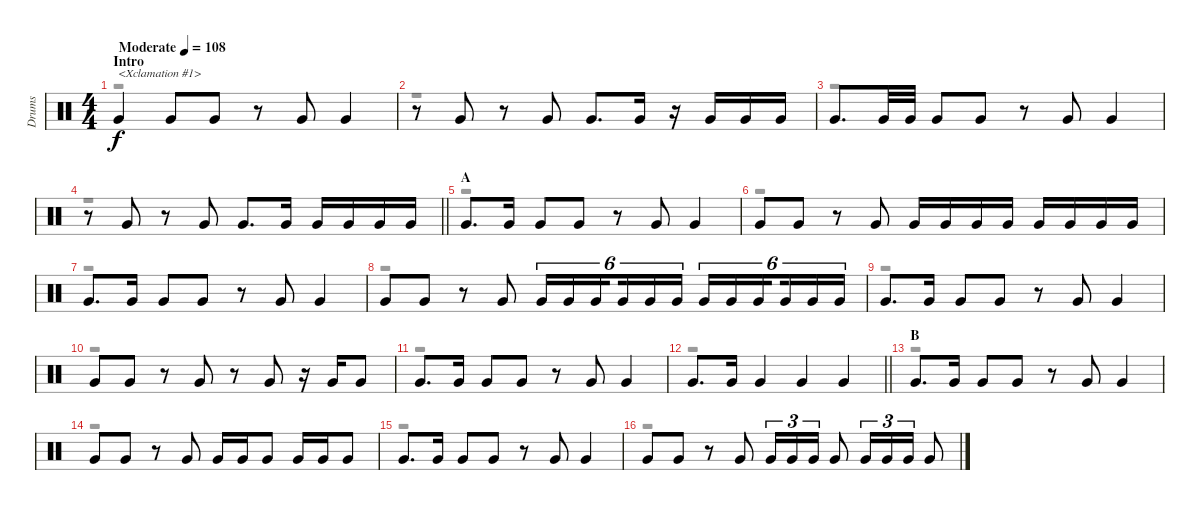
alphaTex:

\track ("Drums" "Drums") {instrument percussion}
\staff {score}
\articulation defaults
\voice
\ts (4 4)
\section ("" "Intro")
\tempo (108 "Moderate")
\clef neutral
\ks c "Very Low Tom (hit)".4{txt "<Xclamation #1>" dy f} "Very Low Tom (hit)".8 "Very Low Tom (hit)".8
r.8 "Very Low Tom (hit)".8 "Very Low Tom (hit)".4 |
r.8 "Very Low Tom (hit)".8 r.8 "Very Low Tom (hit)".8 "Very Low Tom (hit)".8{d} "Very Low Tom (hit)".16 r.16 "Very Low Tom (hit)".16 "Very Low Tom (hit)".16 "Very Low Tom (hit)".16 |
"Very Low Tom (hit)".8{d} "Very Low Tom (hit)".32 "Very Low Tom (hit)".32 "Very Low Tom (hit)".8 "Very Low Tom (hit)".8 r.8 "Very Low Tom (hit)".8 "Very Low Tom (hit)".4 |
\barLineRight lightlight
r.8 "Very Low Tom (hit)".8 r.8 "Very Low Tom (hit)".8 "Very Low Tom (hit)".8{d} "Very Low Tom (hit)".16 "Very Low Tom (hit)".16 "Very Low Tom (hit)".16 "Very Low Tom (hit)".16 "Very Low Tom (hit)".16 |
\section ("" "A")
"Very Low Tom (hit)".8{d} "Very Low Tom (hit)".16 "Very Low Tom (hit)".8 "Very Low Tom (hit)".8 r.8 "Very Low Tom (hit)".8 "Very Low Tom (hit)".4 |
"Very Low Tom (hit)".8 "Very Low Tom (hit)".8 r.8 "Very Low Tom (hit)".8 "Very Low Tom (hit)".16 "Very Low Tom (hit)".16 "Very Low Tom (hit)".16 "Very Low Tom (hit)".16 "Very Low Tom (hit)".16 "Very Low Tom (hit)".16 "Very Low Tom (hit)".16 "Very Low Tom (hit)".16 |
"Very Low Tom (hit)".8{d} "Very Low Tom (hit)".16 "Very Low Tom (hit)".8 "Very Low Tom (hit)".8 r.8 "Very Low Tom (hit)".8 "Very Low Tom (hit)".4 |
"Very Low Tom (hit)".8 "Very Low Tom (hit)".8 r.8 "Very Low Tom (hit)".8 "Very Low Tom (hit)".16{tu (6 4)} "Very Low Tom (hit)".16{tu (6 4)} "Very Low Tom (hit)".16{tu (6 4) beam splitsecondary} "Very Low Tom (hit)".16{tu (6 4)} "Very Low Tom (hit)".16{tu (6 4)} "Very Low Tom (hit)".16{tu (6 4)} "Very Low Tom (hit)".16{tu (6 4)} "Very Low Tom (hit)".16{tu (6 4)} "Very Low Tom (hit)".16{tu (6 4) beam splitsecondary} "Very Low Tom (hit)".16{tu (6 4)} "Very Low Tom (hit)".16{tu (6 4)} "Very Low Tom (hit)".16{tu (6 4)} |
"Very Low Tom (hit)".8{d} "Very Low Tom (hit)".16 "Very Low Tom (hit)".8 "Very Low Tom (hit)".8 r.8 "Very Low Tom (hit)".8 "Very Low Tom (hit)".4 |
"Very Low Tom (hit)".8 "Very Low Tom (hit)".8 r.8 "Very Low Tom (hit)".8 r.8 "Very Low Tom (hit)".8 r.16 "Very Low Tom (hit)".16 "Very Low Tom (hit)".8 |
"Very Low Tom (hit)".8{d} "Very Low Tom (hit)".16 "Very Low Tom (hit)".8 "Very Low Tom (hit)".8 r.8 "Very Low Tom (hit)".8 "Very Low Tom (hit)".4 |
\barLineRight lightlight "Very Low Tom (hit)".8{d} "Very Low Tom (hit)".16 "Very Low Tom (hit)".4 "Very Low Tom (hit)".4 "Very Low Tom (hit)".4
|
\section ("" "B")
"Very Low Tom (hit)".8{d} "Very Low Tom (hit)".16 "Very Low Tom (hit)".8 "Very Low Tom (hit)".8 r.8 "Very Low Tom (hit)".8 "Very Low Tom (hit)".4 |
"Very Low Tom (hit)".8 "Very Low Tom (hit)".8 r.8 "Very Low Tom (hit)".8 "Very Low Tom (hit)".16 "Very Low Tom (hit)".16 "Very Low Tom (hit)".8 "Very Low Tom (hit)".16 "Very Low Tom (hit)".16 "Very Low Tom (hit)".8 |
"Very Low Tom (hit)".8{d} "Very Low Tom (hit)".16 "Very Low Tom (hit)".8 "Very Low Tom (hit)".8 r.8 "Very Low Tom (hit)".8 "Very Low Tom (hit)".4 |
"Very Low Tom (hit)".8 "Very Low Tom (hit)".8 r.8 "Very Low Tom (hit)".8 "Very Low Tom (hit)".16{tu (3 2)} "Very Low Tom (hit)".16{tu (3 2)} "Very Low Tom (hit)".16{tu (3 2)} "Very Low Tom (hit)".8 "Very Low Tom (hit)".16{tu (3 2)} "Very Low Tom (hit)".16{tu (3 2)} "Very Low Tom (hit)".16{tu (3 2)} "Very Low Tom (hit)".8
\voice
\clef neutral
\ottava regular
\simile none
\ks c
r.1{dy fff} |
r.1 |
r.1 |
\barLineRight lightlight
r.1 |
r.1 |
r.1 |
r.1 |
r.1 |
r.1 |
r.1 |
r.1 |
\barLineRight lightlight
r.1 |
r.1 |
r.1 |
r.1 |
r.1
